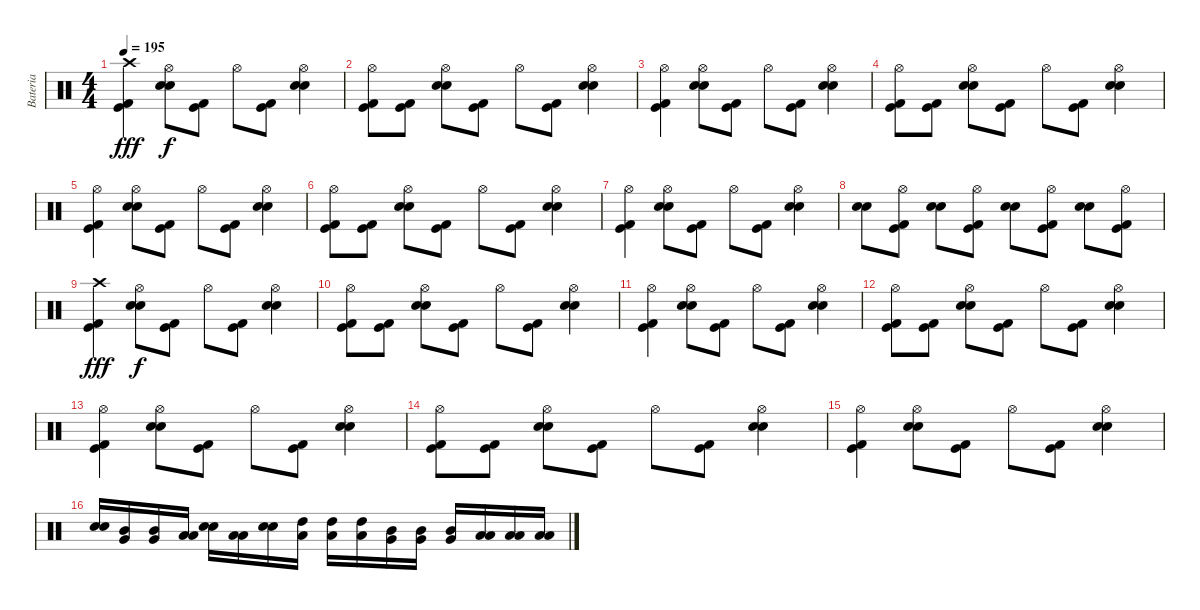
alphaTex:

\track ("Bateria" "Bateria") {instrument percussion}
\staff {score}
\articulation defaults
\ts (4 4)
\tempo 195
\clef neutral
\ks c
("Crash high (hit)" "Kick (hit) 2" "Kick (hit)").4{dy fff} ("Hi-Hat (open)" "Electric Snare (hit)" "Snare (hit) 2").8{dy f} ("Kick (hit) 2" "Kick (hit)").8 "Hi-Hat (open)".8 ("Kick (hit) 2" "Kick (hit)").8 ("Hi-Hat (open)" "Electric Snare (hit)" "Snare (hit) 2").4 |
("Hi-Hat (open)" "Kick (hit) 2" "Kick (hit)").8 ("Kick (hit) 2" "Kick (hit)").8 ("Hi-Hat (open)" "Electric Snare (hit)" "Snare (hit) 2").8 ("Kick (hit) 2" "Kick (hit)").8 "Hi-Hat (open)".8 ("Kick (hit) 2" "Kick (hit)").8 ("Hi-Hat (open)" "Electric Snare (hit)" "Snare (hit) 2").4 |
("Hi-Hat (open)" "Kick (hit) 2" "Kick (hit)").4 ("Hi-Hat (open)" "Electric Snare (hit)" "Snare (hit) 2").8 ("Kick (hit) 2" "Kick (hit)").8 "Hi-Hat (open)".8 ("Kick (hit) 2" "Kick (hit)").8 ("Hi-Hat (open)" "Electric Snare (hit)" "Snare (hit) 2").4 |
("Hi-Hat (open)" "Kick (hit) 2" "Kick (hit)").8 ("Kick (hit) 2" "Kick (hit)").8 ("Hi-Hat (open)" "Electric Snare (hit)" "Snare (hit) 2").8 ("Kick (hit) 2" "Kick (hit)").8 "Hi-Hat (open)".8 ("Kick (hit) 2" "Kick (hit)").8 ("Hi-Hat (open)" "Electric Snare (hit)" "Snare (hit) 2").4 |
("Hi-Hat (open)" "Kick (hit) 2" "Kick (hit)").4 ("Hi-Hat (open)" "Electric Snare (hit)" "Snare (hit) 2").8 ("Kick (hit) 2" "Kick (hit)").8 "Hi-Hat (open)".8 ("Kick (hit) 2" "Kick (hit)").8 ("Hi-Hat (open)" "Electric Snare (hit)" "Snare (hit) 2").4 |
("Hi-Hat (open)" "Kick (hit) 2" "Kick (hit)").8 ("Kick (hit) 2" "Kick (hit)").8 ("Hi-Hat (open)" "Electric Snare (hit)" "Snare (hit) 2").8 ("Kick (hit) 2" "Kick (hit)").8 "Hi-Hat (open)".8 ("Kick (hit) 2" "Kick (hit)").8 ("Hi-Hat (open)" "Electric Snare (hit)" "Snare (hit) 2").4 |
("Hi-Hat (open)" "Kick (hit) 2" "Kick (hit)").4 ("Hi-Hat (open)" "Electric Snare (hit)" "Snare (hit) 2").8 ("Kick (hit) 2" "Kick (hit)").8 "Hi-Hat (open)".8 ("Kick (hit) 2" "Kick (hit)").8 ("Hi-Hat (open)" "Electric Snare (hit)" "Snare (hit) 2").4 |
("Electric Snare (hit)" "Snare (hit) 2").8 ("Hi-Hat (open)" "Kick (hit) 2" "Kick (hit)").8 ("Electric Snare (hit)" "Snare (hit) 2").8 ("Hi-Hat (open)" "Kick (hit) 2" "Kick (hit)").8 ("Electric Snare (hit)" "Snare (hit) 2").8 ("Hi-Hat (open)" "Kick (hit) 2" "Kick (hit)").8 ("Electric Snare (hit)" "Snare (hit) 2").8 ("Hi-Hat (open)" "Kick (hit) 2" "Kick (hit)").8 |
("Crash high (hit)" "Kick (hit) 2" "Kick (hit)").4{dy fff} ("Hi-Hat (open)" "Electric Snare (hit)" "Snare (hit) 2").8{dy f} ("Kick (hit) 2" "Kick (hit)").8 "Hi-Hat (open)".8 ("Kick (hit) 2" "Kick (hit)").8 ("Hi-Hat (open)" "Electric Snare (hit)" "Snare (hit) 2").4 |
("Hi-Hat (open)" "Kick (hit) 2" "Kick (hit)").8 ("Kick (hit) 2" "Kick (hit)").8 ("Hi-Hat (open)" "Electric Snare (hit)" "Snare (hit) 2").8 ("Kick (hit) 2" "Kick (hit)").8 "Hi-Hat (open)".8 ("Kick (hit) 2" "Kick (hit)").8 ("Hi-Hat (open)" "Electric Snare (hit)" "Snare (hit) 2").4 |
("Hi-Hat (open)" "Kick (hit) 2" "Kick (hit)").4 ("Hi-Hat (open)" "Electric Snare (hit)" "Snare (hit) 2").8 ("Kick (hit) 2" "Kick (hit)").8 "Hi-Hat (open)".8 ("Kick (hit) 2" "Kick (hit)").8 ("Hi-Hat (open)" "Electric Snare (hit)" "Snare (hit) 2").4 |
("Hi-Hat (open)" "Kick (hit) 2" "Kick (hit)").8 ("Kick (hit) 2" "Kick (hit)").8 ("Hi-Hat (open)" "Electric Snare (hit)" "Snare (hit) 2").8 ("Kick (hit) 2" "Kick (hit)").8 "Hi-Hat (open)".8 ("Kick (hit) 2" "Kick (hit)").8 ("Hi-Hat (open)" "Electric Snare (hit)" "Snare (hit) 2").4 |
("Hi-Hat (open)" "Kick (hit) 2" "Kick (hit)").4 ("Hi-Hat (open)" "Electric Snare (hit)" "Snare (hit) 2").8 ("Kick (hit) 2" "Kick (hit)").8 "Hi-Hat (open)".8 ("Kick (hit) 2" "Kick (hit)").8 ("Hi-Hat (open)" "Electric Snare (hit)" "Snare (hit) 2").4 |
("Hi-Hat (open)" "Kick (hit) 2" "Kick (hit)").8 ("Kick (hit) 2" "Kick (hit)").8 ("Hi-Hat (open)" "Electric Snare (hit)" "Snare (hit) 2").8 ("Kick (hit) 2" "Kick (hit)").8 "Hi-Hat (open)".8 ("Kick (hit) 2" "Kick (hit)").8 ("Hi-Hat (open)" "Electric Snare (hit)" "Snare (hit) 2").4 |
("Hi-Hat (open)" "Kick (hit) 2" "Kick (hit)").4 ("Hi-Hat (open)" "Electric Snare (hit)" "Snare (hit) 2").8 ("Kick (hit) 2" "Kick (hit)").8 "Hi-Hat (open)".8 ("Kick (hit) 2" "Kick (hit)").8 ("Hi-Hat (open)" "Electric Snare (hit)" "Snare (hit) 2").4 |
("Electric Snare (hit)" "Snare (hit) 2").16 ("Mid Tom (hit)" "Very Low Tom (hit)").16 ("Mid Tom (hit)" "Very Low Tom (hit)").16 ("Low Tom (hit)" "Low Floor Tom (hit)").16 ("Electric Snare (hit)" "Snare (hit) 2").16 ("Low Tom (hit)" "Low Floor Tom (hit)").16 ("Electric Snare (hit)" "Snare (hit) 2").16 ("High Tom (hit)" "Low Floor Tom (hit)").16 ("High Tom (hit)" "Low Tom (hit)").16 ("High Tom (hit)" "Low Tom (hit)").16 ("Mid Tom (hit)" "Very Low Tom (hit)").16 ("Mid Tom (hit)" "Very Low Tom (hit)").16 ("Mid Tom (hit)" "Very Low Tom (hit)").16 ("Low Tom (hit)" "Low Floor Tom (hit)").16 ("Low Tom (hit)" "Low Floor Tom (hit)").16 ("Low Tom (hit)" "Low Floor Tom (hit)").16
